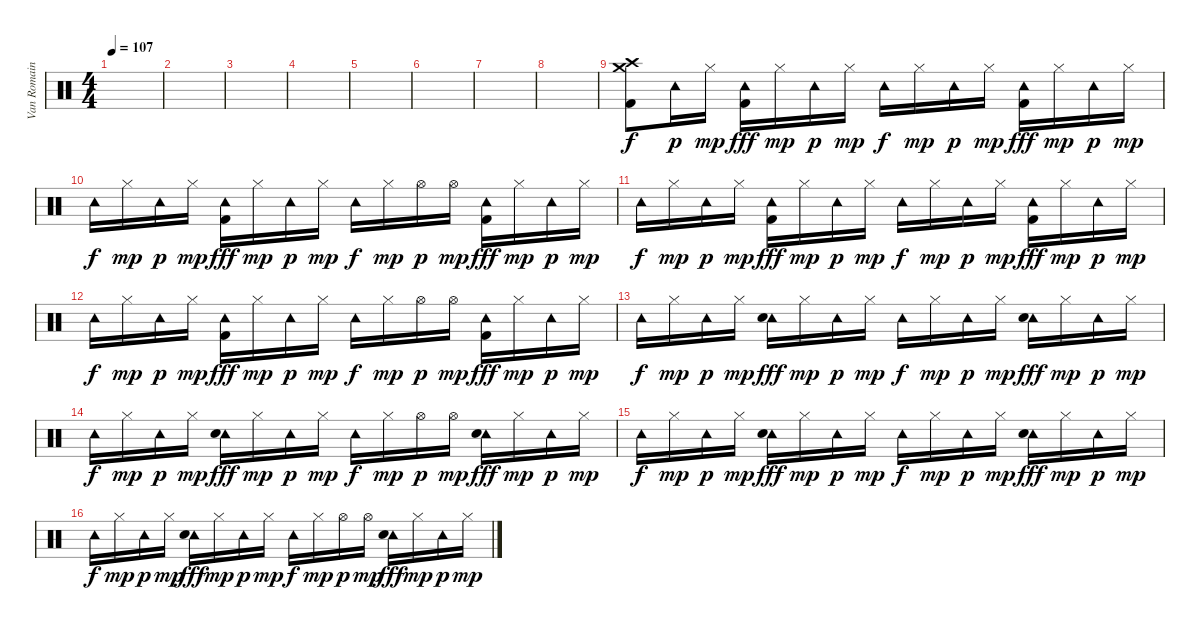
\track ("Van Romaine" "Van Romain") {instrument percussion}
\staff {score}
\articulation defaults
\ts (4 4)
\tempo 107
\clef neutral
\ks c
|
|
|
|
|
|
|
|
("Crash high (hit)" "Crash medium (hit)" "Kick (hit) 2").8 "Tambourine (hit)".16{dy p} "Hi-Hat (closed)".16{dy mp} ("Tambourine (hit)" "Kick (hit) 2").16{dy fff} "Hi-Hat (closed)".16{dy mp} "Tambourine (hit)".16{dy p} "Hi-Hat (closed)".16{dy mp} "Tambourine (hit)".16{dy f} "Hi-Hat (closed)".16{dy mp} "Tambourine (hit)".16{dy p} "Hi-Hat (closed)".16{dy mp} ("Tambourine (hit)" "Kick (hit) 2").16{dy fff} "Hi-Hat (closed)".16{dy mp} "Tambourine (hit)".16{dy p} "Hi-Hat (closed)".16{dy mp} |
"Tambourine (hit)".16{dy f} "Hi-Hat (closed)".16{dy mp} "Tambourine (hit)".16{dy p} "Hi-Hat (closed)".16{dy mp} ("Tambourine (hit)" "Kick (hit) 2").16{dy fff} "Hi-Hat (closed)".16{dy mp} "Tambourine (hit)".16{dy p} "Hi-Hat (closed)".16{dy mp} "Tambourine (hit)".16{dy f} "Hi-Hat (closed)".16{dy mp} "Hi-Hat (open)".16{dy p} "Hi-Hat (open)".16{dy mp} ("Tambourine (hit)" "Kick (hit) 2").16{dy fff} "Hi-Hat (closed)".16{dy mp} "Tambourine (hit)".16{dy p} "Hi-Hat (closed)".16{dy mp} |
"Tambourine (hit)".16{dy f} "Hi-Hat (closed)".16{dy mp} "Tambourine (hit)".16{dy p} "Hi-Hat (closed)".16{dy mp} ("Tambourine (hit)" "Kick (hit) 2").16{dy fff} "Hi-Hat (closed)".16{dy mp} "Tambourine (hit)".16{dy p} "Hi-Hat (closed)".16{dy mp} "Tambourine (hit)".16{dy f} "Hi-Hat (closed)".16{dy mp} "Tambourine (hit)".16{dy p} "Hi-Hat (closed)".16{dy mp} ("Tambourine (hit)" "Kick (hit) 2").16{dy fff} "Hi-Hat (closed)".16{dy mp} "Tambourine (hit)".16{dy p} "Hi-Hat (closed)".16{dy mp} |
"Tambourine (hit)".16{dy f} "Hi-Hat (closed)".16{dy mp} "Tambourine (hit)".16{dy p} "Hi-Hat (closed)".16{dy mp} ("Tambourine (hit)" "Kick (hit) 2").16{dy fff} "Hi-Hat (closed)".16{dy mp} "Tambourine (hit)".16{dy p} "Hi-Hat (closed)".16{dy mp} "Tambourine (hit)".16{dy f} "Hi-Hat (closed)".16{dy mp} "Hi-Hat (open)".16{dy p} "Hi-Hat (open)".16{dy mp} ("Tambourine (hit)" "Kick (hit) 2").16{dy fff} "Hi-Hat (closed)".16{dy mp} "Tambourine (hit)".16{dy p} "Hi-Hat (closed)".16{dy mp} |
"Tambourine (hit)".16{dy f} "Hi-Hat (closed)".16{dy mp} "Tambourine (hit)".16{dy p} "Hi-Hat (closed)".16{dy mp} ("Tambourine (hit)" "Electric Snare (hit)").16{dy fff} "Hi-Hat (closed)".16{dy mp} "Tambourine (hit)".16{dy p} "Hi-Hat (closed)".16{dy mp} "Tambourine (hit)".16{dy f} "Hi-Hat (closed)".16{dy mp} "Tambourine (hit)".16{dy p} "Hi-Hat (closed)".16{dy mp} ("Tambourine (hit)" "Electric Snare (hit)").16{dy fff} "Hi-Hat (closed)".16{dy mp} "Tambourine (hit)".16{dy p} "Hi-Hat (closed)".16{dy mp} |
"Tambourine (hit)".16{dy f} "Hi-Hat (closed)".16{dy mp} "Tambourine (hit)".16{dy p} "Hi-Hat (closed)".16{dy mp} ("Tambourine (hit)" "Electric Snare (hit)").16{dy fff} "Hi-Hat (closed)".16{dy mp} "Tambourine (hit)".16{dy p} "Hi-Hat (closed)".16{dy mp} "Tambourine (hit)".16{dy f} "Hi-Hat (closed)".16{dy mp} "Hi-Hat (open)".16{dy p} "Hi-Hat (open)".16{dy mp} ("Tambourine (hit)" "Electric Snare (hit)").16{dy fff} "Hi-Hat (closed)".16{dy mp} "Tambourine (hit)".16{dy p} "Hi-Hat (closed)".16{dy mp} |
"Tambourine (hit)".16{dy f} "Hi-Hat (closed)".16{dy mp} "Tambourine (hit)".16{dy p} "Hi-Hat (closed)".16{dy mp} ("Tambourine (hit)" "Electric Snare (hit)").16{dy fff} "Hi-Hat (closed)".16{dy mp} "Tambourine (hit)".16{dy p} "Hi-Hat (closed)".16{dy mp} "Tambourine (hit)".16{dy f} "Hi-Hat (closed)".16{dy mp} "Tambourine (hit)".16{dy p} "Hi-Hat (closed)".16{dy mp} ("Tambourine (hit)" "Electric Snare (hit)").16{dy fff} "Hi-Hat (closed)".16{dy mp} "Tambourine (hit)".16{dy p} "Hi-Hat (closed)".16{dy mp} |
"Tambourine (hit)".16{dy f} "Hi-Hat (closed)".16{dy mp} "Tambourine (hit)".16{dy p} "Hi-Hat (closed)".16{dy mp} ("Tambourine (hit)" "Electric Snare (hit)").16{dy fff} "Hi-Hat (closed)".16{dy mp} "Tambourine (hit)".16{dy p} "Hi-Hat (closed)".16{dy mp} "Tambourine (hit)".16{dy f} "Hi-Hat (closed)".16{dy mp} "Hi-Hat (open)".16{dy p} "Hi-Hat (open)".16{dy mp} ("Tambourine (hit)" "Electric Snare (hit)").16{dy fff} "Hi-Hat (closed)".16{dy mp} "Tambourine (hit)".16{dy p} "Hi-Hat (closed)".16{dy mp}
